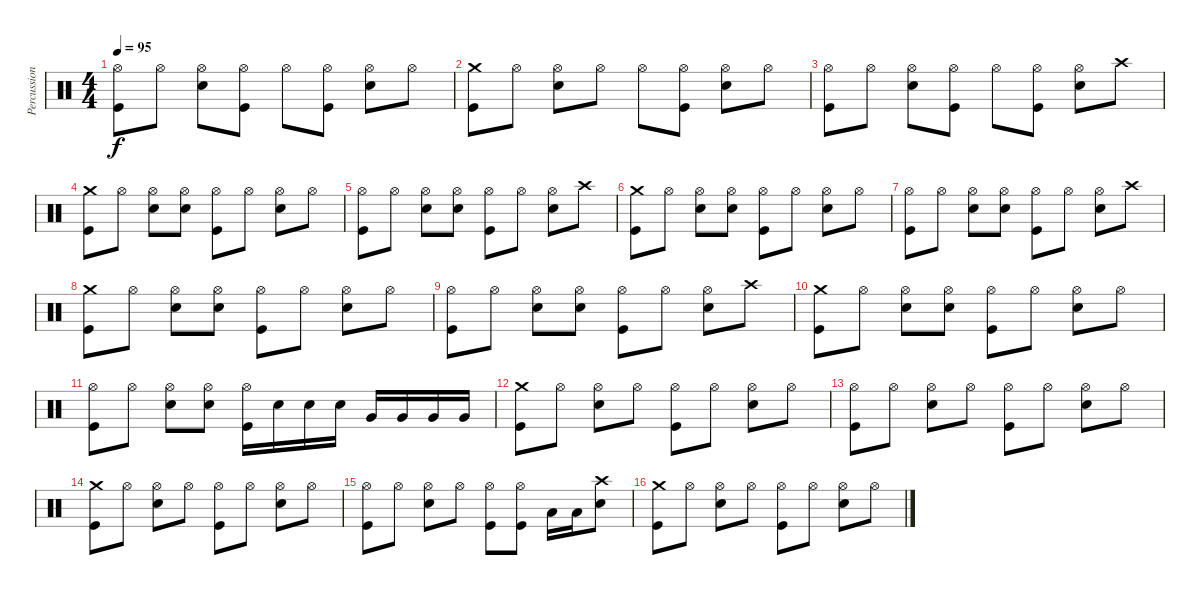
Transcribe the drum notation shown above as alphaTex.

\track ("Percussion" "Percussion") {instrument percussion}
\staff {score}
\articulation defaults
\ts (4 4)
\tempo 95
\clef neutral
\ks c
("Hi-Hat (open)" "Kick (hit)").8{dy f} "Hi-Hat (open)".8 ("Hi-Hat (open)" "Electric Snare (hit)").8 ("Hi-Hat (open)" "Kick (hit)").8 "Hi-Hat (open)".8 ("Hi-Hat (open)" "Kick (hit)").8 ("Hi-Hat (open)" "Electric Snare (hit)").8 "Hi-Hat (open)".8 |
("Kick (hit)" "Crash medium (hit)").8 "Hi-Hat (open)".8 ("Hi-Hat (open)" "Electric Snare (hit)").8 "Hi-Hat (open)".8 "Hi-Hat (open)".8 ("Hi-Hat (open)" "Kick (hit)").8 ("Hi-Hat (open)" "Electric Snare (hit)").8 "Hi-Hat (open)".8 |
("Hi-Hat (open)" "Kick (hit)").8 "Hi-Hat (open)".8 ("Hi-Hat (open)" "Electric Snare (hit)").8 ("Hi-Hat (open)" "Kick (hit)").8 "Hi-Hat (open)".8 ("Hi-Hat (open)" "Kick (hit)").8 ("Hi-Hat (open)" "Electric Snare (hit)").8 "Crash high (hit)".8 |
("Crash medium (hit)" "Kick (hit)").8 "Hi-Hat (open)".8 ("Hi-Hat (open)" "Electric Snare (hit)").8 ("Hi-Hat (open)" "Electric Snare (hit)").8 ("Hi-Hat (open)" "Kick (hit)").8 "Hi-Hat (open)".8 ("Hi-Hat (open)" "Electric Snare (hit)").8 "Hi-Hat (open)".8 |
("Hi-Hat (open)" "Kick (hit)").8 "Hi-Hat (open)".8 ("Hi-Hat (open)" "Electric Snare (hit)").8 ("Hi-Hat (open)" "Electric Snare (hit)").8 ("Hi-Hat (open)" "Kick (hit)").8 "Hi-Hat (open)".8 ("Hi-Hat (open)" "Electric Snare (hit)").8 "Crash high (hit)".8 |
("Crash medium (hit)" "Kick (hit)").8 "Hi-Hat (open)".8 ("Hi-Hat (open)" "Electric Snare (hit)").8 ("Hi-Hat (open)" "Electric Snare (hit)").8 ("Hi-Hat (open)" "Kick (hit)").8 "Hi-Hat (open)".8 ("Hi-Hat (open)" "Electric Snare (hit)").8 "Hi-Hat (open)".8 |
("Hi-Hat (open)" "Kick (hit)").8 "Hi-Hat (open)".8 ("Hi-Hat (open)" "Electric Snare (hit)").8 ("Hi-Hat (open)" "Electric Snare (hit)").8 ("Hi-Hat (open)" "Kick (hit)").8 "Hi-Hat (open)".8 ("Hi-Hat (open)" "Electric Snare (hit)").8 "Crash high (hit)".8 |
("Crash medium (hit)" "Kick (hit)").8 "Hi-Hat (open)".8 ("Hi-Hat (open)" "Electric Snare (hit)").8 ("Hi-Hat (open)" "Electric Snare (hit)").8 ("Hi-Hat (open)" "Kick (hit)").8 "Hi-Hat (open)".8 ("Hi-Hat (open)" "Electric Snare (hit)").8 "Hi-Hat (open)".8 |
("Hi-Hat (open)" "Kick (hit)").8 "Hi-Hat (open)".8 ("Hi-Hat (open)" "Electric Snare (hit)").8 ("Hi-Hat (open)" "Electric Snare (hit)").8 ("Hi-Hat (open)" "Kick (hit)").8 "Hi-Hat (open)".8 ("Hi-Hat (open)" "Electric Snare (hit)").8 "Crash high (hit)".8 |
("Crash medium (hit)" "Kick (hit)").8 "Hi-Hat (open)".8 ("Hi-Hat (open)" "Electric Snare (hit)").8 ("Hi-Hat (open)" "Electric Snare (hit)").8 ("Hi-Hat (open)" "Kick (hit)").8 "Hi-Hat (open)".8 ("Hi-Hat (open)" "Electric Snare (hit)").8 "Hi-Hat (open)".8 |
("Hi-Hat (open)" "Kick (hit)").8 "Hi-Hat (open)".8 ("Hi-Hat (open)" "Electric Snare (hit)").8 ("Hi-Hat (open)" "Electric Snare (hit)").8 ("Hi-Hat (open)" "Kick (hit)").16 "Electric Snare (hit)".16 "Electric Snare (hit)".16 "Electric Snare (hit)".16 "Very Low Tom (hit)".16 "Very Low Tom (hit)".16 "Very Low Tom (hit)".16 "Very Low Tom (hit)".16 |
("Crash medium (hit)" "Kick (hit)").8 "Hi-Hat (open)".8 ("Hi-Hat (open)" "Electric Snare (hit)").8 "Hi-Hat (open)".8 ("Hi-Hat (open)" "Kick (hit)").8 "Hi-Hat (open)".8 ("Hi-Hat (open)" "Electric Snare (hit)").8 "Hi-Hat (open)".8 |
("Hi-Hat (open)" "Kick (hit)").8 "Hi-Hat (open)".8 ("Hi-Hat (open)" "Electric Snare (hit)").8 "Hi-Hat (open)".8 ("Hi-Hat (open)" "Kick (hit)").8 "Hi-Hat (open)".8 ("Hi-Hat (open)" "Electric Snare (hit)").8 "Hi-Hat (open)".8 |
("Crash medium (hit)" "Kick (hit)").8 "Hi-Hat (open)".8 ("Hi-Hat (open)" "Electric Snare (hit)").8 "Hi-Hat (open)".8 ("Hi-Hat (open)" "Kick (hit)").8 "Hi-Hat (open)".8 ("Hi-Hat (open)" "Electric Snare (hit)").8 "Hi-Hat (open)".8 |
("Hi-Hat (open)" "Kick (hit)").8 "Hi-Hat (open)".8 ("Hi-Hat (open)" "Electric Snare (hit)").8 "Hi-Hat (open)".8 ("Hi-Hat (open)" "Kick (hit)").8 ("Hi-Hat (open)" "Kick (hit)").8 "Low Floor Tom (hit)".16 "Low Floor Tom (hit)".16 ("Crash high (hit)" "Electric Snare (hit)").8 |
("Crash medium (hit)" "Kick (hit)").8 "Hi-Hat (open)".8 ("Hi-Hat (open)" "Electric Snare (hit)").8 "Hi-Hat (open)".8 ("Hi-Hat (open)" "Kick (hit)").8 "Hi-Hat (open)".8 ("Hi-Hat (open)" "Electric Snare (hit)").8 "Hi-Hat (open)".8
